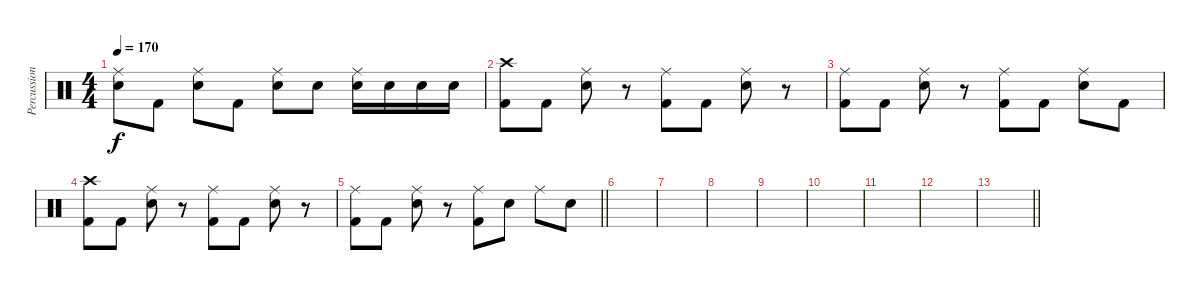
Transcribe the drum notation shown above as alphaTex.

\track ("Percussion" "Percussion") {instrument percussion}
\staff {score}
\articulation defaults
\ts (4 4)
\tempo 170
\clef neutral
\ks c
("Ride (middle)" "Electric Snare (hit)").8{dy f} "Kick (hit) 2".8 ("Ride (middle)" "Electric Snare (hit)").8 "Kick (hit) 2".8 ("Ride (middle)" "Electric Snare (hit)").8 "Electric Snare (hit)".8 ("Ride (middle)" "Electric Snare (hit)").16 "Electric Snare (hit)".16 "Electric Snare (hit)".16 "Electric Snare (hit)".16 |
("Crash high (hit)" "Kick (hit) 2").8{volume 3} "Kick (hit) 2".8 ("Ride (middle)" "Electric Snare (hit)").8 r.8 ("Ride (middle)" "Kick (hit) 2").8 "Kick (hit) 2".8 ("Ride (middle)" "Electric Snare (hit)").8 r.8 |
("Ride (middle)" "Kick (hit) 2").8 "Kick (hit) 2".8 ("Ride (middle)" "Electric Snare (hit)").8 r.8 ("Ride (middle)" "Kick (hit) 2").8 "Kick (hit) 2".8 ("Ride (middle)" "Electric Snare (hit)").8 "Kick (hit) 2".8 |
("Crash high (hit)" "Kick (hit) 2").8 "Kick (hit) 2".8 ("Ride (middle)" "Electric Snare (hit)").8 r.8 ("Ride (middle)" "Kick (hit) 2").8 "Kick (hit) 2".8 ("Ride (middle)" "Electric Snare (hit)").8 r.8 |
\barLineRight lightlight
("Ride (middle)" "Kick (hit) 2").8 "Kick (hit) 2".8 ("Ride (middle)" "Electric Snare (hit)").8 r.8 ("Ride (middle)" "Kick (hit) 2").8 "Electric Snare (hit)".8 "Ride (middle)".8 "Electric Snare (hit)".8 |
|
|
|
|
|
|
|
\barLineRight lightlight
